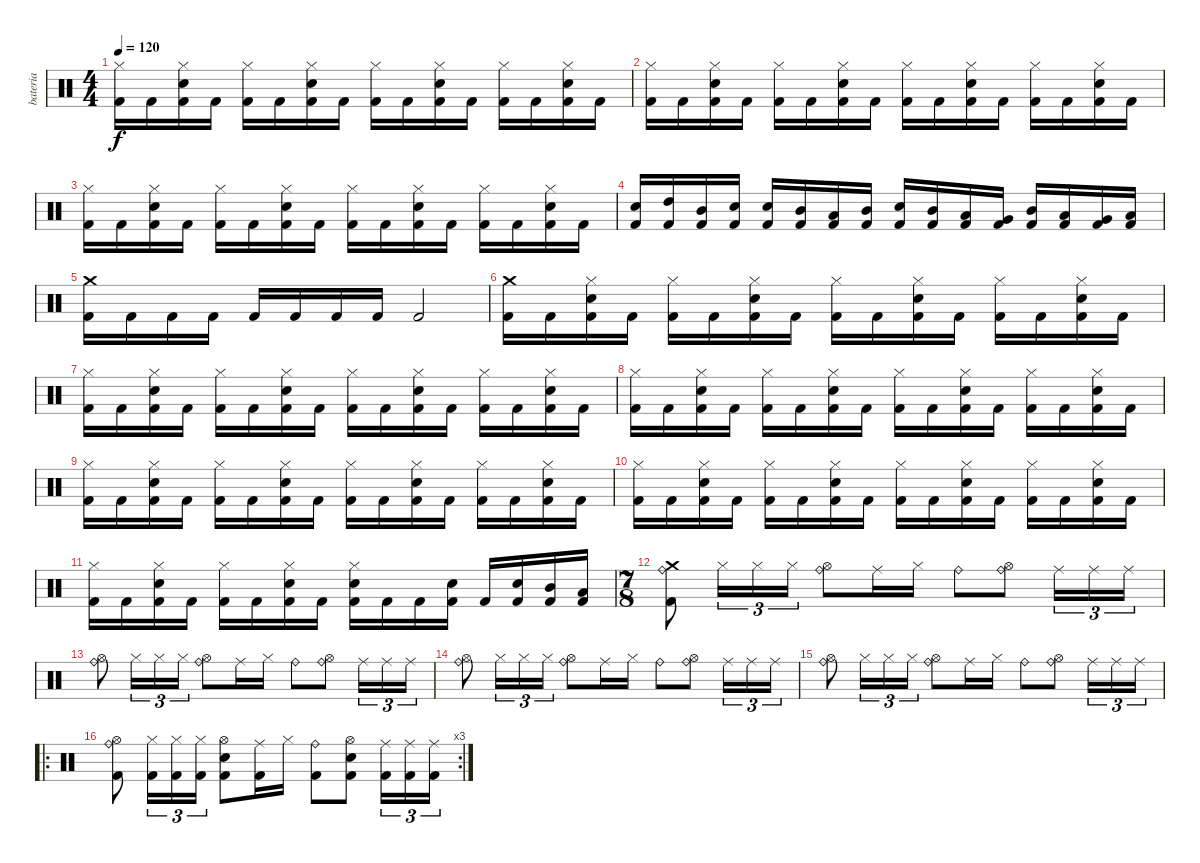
\track ("bateria" "bateria") {instrument percussion}
\staff {score}
\articulation defaults
\ts (4 4)
\tempo 120
\clef neutral
\ks c
("Hi-Hat (closed)" "Kick (hit) 2").16{dy f} "Kick (hit) 2".16 ("Hi-Hat (closed)" "Electric Snare (hit)" "Kick (hit) 2").16 "Kick (hit) 2".16 ("Hi-Hat (closed)" "Kick (hit) 2").16 "Kick (hit) 2".16 ("Hi-Hat (closed)" "Electric Snare (hit)" "Kick (hit) 2").16 "Kick (hit) 2".16 ("Hi-Hat (closed)" "Kick (hit) 2").16 "Kick (hit) 2".16 ("Hi-Hat (closed)" "Electric Snare (hit)" "Kick (hit) 2").16 "Kick (hit) 2".16 ("Hi-Hat (closed)" "Kick (hit) 2").16 "Kick (hit) 2".16 ("Hi-Hat (closed)" "Electric Snare (hit)" "Kick (hit) 2").16 "Kick (hit) 2".16 |
("Hi-Hat (closed)" "Kick (hit) 2").16 "Kick (hit) 2".16 ("Hi-Hat (closed)" "Electric Snare (hit)" "Kick (hit) 2").16 "Kick (hit) 2".16 ("Hi-Hat (closed)" "Kick (hit) 2").16 "Kick (hit) 2".16 ("Hi-Hat (closed)" "Electric Snare (hit)" "Kick (hit) 2").16 "Kick (hit) 2".16 ("Hi-Hat (closed)" "Kick (hit) 2").16 "Kick (hit) 2".16 ("Hi-Hat (closed)" "Electric Snare (hit)" "Kick (hit) 2").16 "Kick (hit) 2".16 ("Hi-Hat (closed)" "Kick (hit) 2").16 "Kick (hit) 2".16 ("Hi-Hat (closed)" "Electric Snare (hit)" "Kick (hit) 2").16 "Kick (hit) 2".16 |
("Hi-Hat (closed)" "Kick (hit) 2").16 "Kick (hit) 2".16 ("Hi-Hat (closed)" "Electric Snare (hit)" "Kick (hit) 2").16 "Kick (hit) 2".16 ("Hi-Hat (closed)" "Kick (hit) 2").16 "Kick (hit) 2".16 ("Hi-Hat (closed)" "Electric Snare (hit)" "Kick (hit) 2").16 "Kick (hit) 2".16 ("Hi-Hat (closed)" "Kick (hit) 2").16 "Kick (hit) 2".16 ("Hi-Hat (closed)" "Electric Snare (hit)" "Kick (hit) 2").16 "Kick (hit) 2".16 ("Hi-Hat (closed)" "Kick (hit) 2").16 "Kick (hit) 2".16 ("Hi-Hat (closed)" "Electric Snare (hit)" "Kick (hit) 2").16 "Kick (hit) 2".16 |
("Electric Snare (hit)" "Kick (hit) 2").16 ("High Tom (hit)" "Kick (hit) 2").16 ("Mid Tom (hit)" "Kick (hit) 2").16 ("Electric Snare (hit)" "Kick (hit) 2").16 ("Electric Snare (hit)" "Kick (hit) 2").16 ("Mid Tom (hit)" "Kick (hit) 2").16 ("Low Tom (hit)" "Kick (hit) 2").16 ("Mid Tom (hit)" "Kick (hit) 2").16 ("Electric Snare (hit)" "Kick (hit) 2").16 ("Mid Tom (hit)" "Kick (hit) 2").16 ("Low Tom (hit)" "Kick (hit) 2").16 ("Very Low Tom (hit)" "Kick (hit) 2").16 ("Mid Tom (hit)" "Kick (hit) 2").16 ("Low Tom (hit)" "Kick (hit) 2").16 ("Very Low Tom (hit)" "Kick (hit) 2").16 ("Low Floor Tom (hit)" "Kick (hit) 2").16 |
("Crash medium (hit)" "Kick (hit) 2").16 "Kick (hit) 2".16 "Kick (hit) 2".16 "Kick (hit) 2".16 "Kick (hit) 2".16 "Kick (hit) 2".16 "Kick (hit) 2".16 "Kick (hit) 2".16 "Kick (hit) 2".2 |
("Crash medium (hit)" "Kick (hit) 2").16 "Kick (hit) 2".16 ("Hi-Hat (closed)" "Electric Snare (hit)" "Kick (hit) 2").16 "Kick (hit) 2".16 ("Hi-Hat (closed)" "Kick (hit) 2").16 "Kick (hit) 2".16 ("Hi-Hat (closed)" "Electric Snare (hit)" "Kick (hit) 2").16 "Kick (hit) 2".16 ("Hi-Hat (closed)" "Kick (hit) 2").16 "Kick (hit) 2".16 ("Hi-Hat (closed)" "Electric Snare (hit)" "Kick (hit) 2").16 "Kick (hit) 2".16 ("Hi-Hat (closed)" "Kick (hit) 2").16 "Kick (hit) 2".16 ("Hi-Hat (closed)" "Electric Snare (hit)" "Kick (hit) 2").16 "Kick (hit) 2".16 |
("Hi-Hat (closed)" "Kick (hit) 2").16 "Kick (hit) 2".16 ("Hi-Hat (closed)" "Electric Snare (hit)" "Kick (hit) 2").16 "Kick (hit) 2".16 ("Hi-Hat (closed)" "Kick (hit) 2").16 "Kick (hit) 2".16 ("Hi-Hat (closed)" "Electric Snare (hit)" "Kick (hit) 2").16 "Kick (hit) 2".16 ("Hi-Hat (closed)" "Kick (hit) 2").16 "Kick (hit) 2".16 ("Hi-Hat (closed)" "Electric Snare (hit)" "Kick (hit) 2").16 "Kick (hit) 2".16 ("Hi-Hat (closed)" "Kick (hit) 2").16 "Kick (hit) 2".16 ("Hi-Hat (closed)" "Electric Snare (hit)" "Kick (hit) 2").16 "Kick (hit) 2".16 |
("Hi-Hat (closed)" "Kick (hit) 2").16 "Kick (hit) 2".16 ("Hi-Hat (closed)" "Electric Snare (hit)" "Kick (hit) 2").16 "Kick (hit) 2".16 ("Hi-Hat (closed)" "Kick (hit) 2").16 "Kick (hit) 2".16 ("Hi-Hat (closed)" "Electric Snare (hit)" "Kick (hit) 2").16 "Kick (hit) 2".16 ("Hi-Hat (closed)" "Kick (hit) 2").16 "Kick (hit) 2".16 ("Hi-Hat (closed)" "Electric Snare (hit)" "Kick (hit) 2").16 "Kick (hit) 2".16 ("Hi-Hat (closed)" "Kick (hit) 2").16 "Kick (hit) 2".16 ("Hi-Hat (closed)" "Electric Snare (hit)" "Kick (hit) 2").16 "Kick (hit) 2".16 |
("Hi-Hat (closed)" "Kick (hit) 2").16 "Kick (hit) 2".16 ("Hi-Hat (closed)" "Electric Snare (hit)" "Kick (hit) 2").16 "Kick (hit) 2".16 ("Hi-Hat (closed)" "Kick (hit) 2").16 "Kick (hit) 2".16 ("Hi-Hat (closed)" "Electric Snare (hit)" "Kick (hit) 2").16 "Kick (hit) 2".16 ("Hi-Hat (closed)" "Kick (hit) 2").16 "Kick (hit) 2".16 ("Hi-Hat (closed)" "Electric Snare (hit)" "Kick (hit) 2").16 "Kick (hit) 2".16 ("Hi-Hat (closed)" "Kick (hit) 2").16 "Kick (hit) 2".16 ("Hi-Hat (closed)" "Electric Snare (hit)" "Kick (hit) 2").16 "Kick (hit) 2".16 |
("Hi-Hat (closed)" "Kick (hit) 2").16 "Kick (hit) 2".16 ("Hi-Hat (closed)" "Electric Snare (hit)" "Kick (hit) 2").16 "Kick (hit) 2".16 ("Hi-Hat (closed)" "Kick (hit) 2").16 "Kick (hit) 2".16 ("Hi-Hat (closed)" "Electric Snare (hit)" "Kick (hit) 2").16 "Kick (hit) 2".16 ("Hi-Hat (closed)" "Kick (hit) 2").16 "Kick (hit) 2".16 ("Hi-Hat (closed)" "Electric Snare (hit)" "Kick (hit) 2").16 "Kick (hit) 2".16 ("Hi-Hat (closed)" "Kick (hit) 2").16 "Kick (hit) 2".16 ("Hi-Hat (closed)" "Electric Snare (hit)" "Kick (hit) 2").16 "Kick (hit) 2".16 |
("Hi-Hat (closed)" "Kick (hit) 2").16 "Kick (hit) 2".16 ("Hi-Hat (closed)" "Electric Snare (hit)" "Kick (hit) 2").16 "Kick (hit) 2".16 ("Hi-Hat (closed)" "Kick (hit) 2").16 "Kick (hit) 2".16 ("Hi-Hat (closed)" "Electric Snare (hit)" "Kick (hit) 2").16 "Kick (hit) 2".16 ("Hi-Hat (closed)" "Electric Snare (hit)" "Kick (hit) 2").16 "Kick (hit) 2".16 "Kick (hit) 2".16 ("Electric Snare (hit)" "Kick (hit) 2").16 "Kick (hit) 2".16 ("Electric Snare (hit)" "Kick (hit) 2").16 ("Mid Tom (hit)" "Kick (hit) 2").16 ("Low Tom (hit)" "Kick (hit) 2").16 |
\ts (7 8)
("Crash medium (hit)" "Ride (bell)" "Kick (hit) 2").8 "Hi-Hat (closed)".16{tu (3 2)} "Hi-Hat (closed)".16{tu (3 2)} "Hi-Hat (closed)".16{tu (3 2)} ("Ride (bell)" "Hi-Hat (open)").8 "Ride (middle)".16 "Hi-Hat (closed)".16 "Ride (bell)".8 ("Ride (bell)" "Hi-Hat (open)").8 "Ride (middle)".16{tu (3 2)} "Ride (middle)".16{tu (3 2)} "Ride (middle)".16{tu (3 2)} |
("Ride (bell)" "Hi-Hat (open)").8 "Hi-Hat (closed)".16{tu (3 2)} "Hi-Hat (closed)".16{tu (3 2)} "Hi-Hat (closed)".16{tu (3 2)} ("Ride (bell)" "Hi-Hat (open)").8 "Ride (middle)".16 "Hi-Hat (closed)".16 "Ride (bell)".8 ("Ride (bell)" "Hi-Hat (open)").8 "Ride (middle)".16{tu (3 2)} "Ride (middle)".16{tu (3 2)} "Ride (middle)".16{tu (3 2)} |
("Ride (bell)" "Hi-Hat (open)").8 "Hi-Hat (closed)".16{tu (3 2)} "Hi-Hat (closed)".16{tu (3 2)} "Hi-Hat (closed)".16{tu (3 2)} ("Ride (bell)" "Hi-Hat (open)").8 "Ride (middle)".16 "Hi-Hat (closed)".16 "Ride (bell)".8 ("Ride (bell)" "Hi-Hat (open)").8 "Ride (middle)".16{tu (3 2)} "Ride (middle)".16{tu (3 2)} "Ride (middle)".16{tu (3 2)} |
("Ride (bell)" "Hi-Hat (open)").8 "Hi-Hat (closed)".16{tu (3 2)} "Hi-Hat (closed)".16{tu (3 2)} "Hi-Hat (closed)".16{tu (3 2)} ("Ride (bell)" "Hi-Hat (open)").8 "Ride (middle)".16 "Hi-Hat (closed)".16 "Ride (bell)".8 ("Ride (bell)" "Hi-Hat (open)").8 "Ride (middle)".16{tu (3 2)} "Ride (middle)".16{tu (3 2)} "Ride (middle)".16{tu (3 2)} |
\ro
\rc 3
("Ride (bell)" "Hi-Hat (open)" "Kick (hit) 2").8 ("Hi-Hat (closed)" "Kick (hit) 2").16{tu (3 2)} ("Hi-Hat (closed)" "Kick (hit) 2").16{tu (3 2)} ("Hi-Hat (closed)" "Kick (hit) 2").16{tu (3 2)} ("Hi-Hat (open)" "Electric Snare (hit)" "Kick (hit) 2").8 ("Ride (middle)" "Kick (hit) 2").16 "Hi-Hat (closed)".16 ("Ride (bell)" "Kick (hit) 2").8 ("Hi-Hat (open)" "Electric Snare (hit)" "Kick (hit) 2").8 ("Ride (middle)" "Kick (hit) 2").16{tu (3 2)} ("Ride (middle)" "Kick (hit) 2").16{tu (3 2)} ("Ride (middle)" "Kick (hit) 2").16{tu (3 2)}
